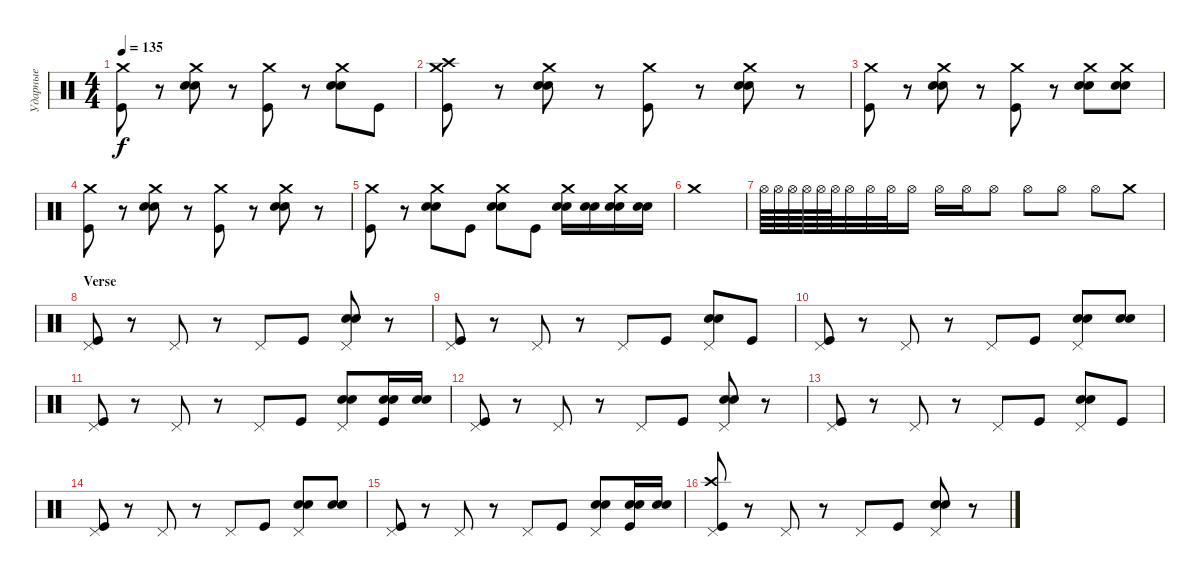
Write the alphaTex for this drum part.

\track ("Ударные" "Ударные") {instrument percussion}
\staff {score}
\articulation defaults
\ts (4 4)
\tempo 135
\clef neutral
\ks c
("Crash medium (hit)" "Kick (hit)").8{dy f} r.8 ("Crash medium (hit)" "Electric Snare (hit)" "Electric Snare (hit)").8 r.8 ("Crash medium (hit)" "Kick (hit)").8 r.8 ("Crash medium (hit)" "Electric Snare (hit)" "Electric Snare (hit)").8 "Kick (hit)".8 |
("Crash medium (hit)" "Crash high (hit)" "Kick (hit)").8 r.8 ("Crash medium (hit)" "Electric Snare (hit)" "Electric Snare (hit)").8 r.8 ("Crash medium (hit)" "Kick (hit)").8 r.8 ("Crash medium (hit)" "Electric Snare (hit)" "Electric Snare (hit)").8 r.8 |
("Crash medium (hit)" "Kick (hit)").8 r.8 ("Crash medium (hit)" "Electric Snare (hit)" "Electric Snare (hit)").8 r.8 ("Crash medium (hit)" "Kick (hit)").8 r.8 ("Crash medium (hit)" "Electric Snare (hit)" "Electric Snare (hit)").8 ("Crash medium (hit)" "Electric Snare (hit)" "Electric Snare (hit)").8 |
("Crash medium (hit)" "Kick (hit)").8 r.8 ("Crash medium (hit)" "Electric Snare (hit)" "Electric Snare (hit)").8 r.8 ("Crash medium (hit)" "Kick (hit)").8 r.8 ("Crash medium (hit)" "Electric Snare (hit)" "Electric Snare (hit)").8 r.8 |
("Crash medium (hit)" "Kick (hit)").8 r.8 ("Crash medium (hit)" "Electric Snare (hit)" "Electric Snare (hit)").8 "Kick (hit)".8 ("Crash medium (hit)" "Electric Snare (hit)" "Electric Snare (hit)").8 "Kick (hit)".8 ("Crash medium (hit)" "Electric Snare (hit)" "Electric Snare (hit)").16 ("Electric Snare (hit)" "Electric Snare (hit)").16 ("Crash medium (hit)" "Electric Snare (hit)" "Electric Snare (hit)").16 ("Electric Snare (hit)" "Electric Snare (hit)").16 |
"Crash medium (hit)".1 |
"Hi-Hat (open)".64 "Hi-Hat (open)".64 "Hi-Hat (open)".64 "Hi-Hat (open)".64 "Hi-Hat (open)".64 "Hi-Hat (open)".64 "Hi-Hat (open)".32 "Hi-Hat (open)".32 "Hi-Hat (open)".32 "Hi-Hat (open)".16 "Hi-Hat (open)".16 "Hi-Hat (open)".16 "Hi-Hat (open)".8 "Hi-Hat (open)".8 "Hi-Hat (open)".8 "Hi-Hat (open)".8 "Crash medium (hit)".8 |
\section ("" "Verse")
("Pedal Hi-Hat (hit)" "Kick (hit)").8 r.8 "Pedal Hi-Hat (hit)".8 r.8 "Pedal Hi-Hat (hit)".8 "Kick (hit)".8 ("Pedal Hi-Hat (hit)" "Electric Snare (hit)" "Electric Snare (hit)").8 r.8 |
("Pedal Hi-Hat (hit)" "Kick (hit)").8 r.8 "Pedal Hi-Hat (hit)".8 r.8 "Pedal Hi-Hat (hit)".8 "Kick (hit)".8 ("Pedal Hi-Hat (hit)" "Electric Snare (hit)" "Electric Snare (hit)").8 "Kick (hit)".8 |
("Pedal Hi-Hat (hit)" "Kick (hit)").8 r.8 "Pedal Hi-Hat (hit)".8 r.8 "Pedal Hi-Hat (hit)".8 "Kick (hit)".8 ("Pedal Hi-Hat (hit)" "Electric Snare (hit)" "Electric Snare (hit)").8 ("Electric Snare (hit)" "Electric Snare (hit)").8 |
("Pedal Hi-Hat (hit)" "Kick (hit)").8 r.8 "Pedal Hi-Hat (hit)".8 r.8 "Pedal Hi-Hat (hit)".8 "Kick (hit)".8 ("Pedal Hi-Hat (hit)" "Electric Snare (hit)" "Electric Snare (hit)").8 ("Electric Snare (hit)" "Electric Snare (hit)" "Kick (hit)").16 ("Electric Snare (hit)" "Electric Snare (hit)").16 |
("Pedal Hi-Hat (hit)" "Kick (hit)").8 r.8 "Pedal Hi-Hat (hit)".8 r.8 "Pedal Hi-Hat (hit)".8 "Kick (hit)".8 ("Pedal Hi-Hat (hit)" "Electric Snare (hit)" "Electric Snare (hit)").8 r.8 |
("Pedal Hi-Hat (hit)" "Kick (hit)").8 r.8 "Pedal Hi-Hat (hit)".8 r.8 "Pedal Hi-Hat (hit)".8 "Kick (hit)".8 ("Pedal Hi-Hat (hit)" "Electric Snare (hit)" "Electric Snare (hit)").8 "Kick (hit)".8 |
("Pedal Hi-Hat (hit)" "Kick (hit)").8 r.8 "Pedal Hi-Hat (hit)".8 r.8 "Pedal Hi-Hat (hit)".8 "Kick (hit)".8 ("Pedal Hi-Hat (hit)" "Electric Snare (hit)" "Electric Snare (hit)").8 ("Electric Snare (hit)" "Electric Snare (hit)").8 |
("Pedal Hi-Hat (hit)" "Kick (hit)").8 r.8 "Pedal Hi-Hat (hit)".8 r.8 "Pedal Hi-Hat (hit)".8 "Kick (hit)".8 ("Pedal Hi-Hat (hit)" "Electric Snare (hit)" "Electric Snare (hit)").8 ("Electric Snare (hit)" "Electric Snare (hit)" "Kick (hit)").16 ("Electric Snare (hit)" "Electric Snare (hit)").16 |
("Pedal Hi-Hat (hit)" "Crash high (hit)" "Kick (hit)").8 r.8 "Pedal Hi-Hat (hit)".8 r.8 "Pedal Hi-Hat (hit)".8 "Kick (hit)".8 ("Pedal Hi-Hat (hit)" "Electric Snare (hit)" "Electric Snare (hit)").8 r.8
